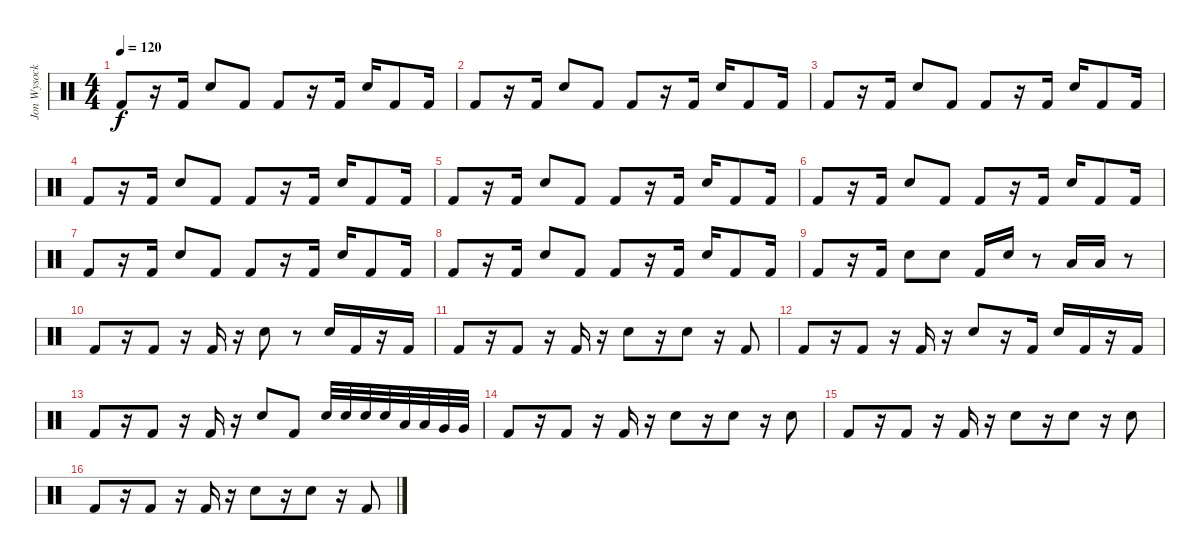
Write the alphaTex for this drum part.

\track ("Jon Wysocki" "Jon Wysock") {instrument percussion}
\staff {score}
\articulation defaults
\ts (4 4)
\tempo 120
\clef neutral
\ks c "Kick (hit) 2".8{dy f}
r.16 "Kick (hit) 2".16 "Electric Snare (hit)".8 "Kick (hit) 2".8 "Kick (hit) 2".8 r.16 "Kick (hit) 2".16 "Electric Snare (hit)".16 "Kick (hit) 2".8 "Kick (hit) 2".16 |
"Kick (hit) 2".8 r.16 "Kick (hit) 2".16 "Electric Snare (hit)".8 "Kick (hit) 2".8 "Kick (hit) 2".8 r.16 "Kick (hit) 2".16 "Electric Snare (hit)".16 "Kick (hit) 2".8 "Kick (hit) 2".16 |
"Kick (hit) 2".8 r.16 "Kick (hit) 2".16 "Electric Snare (hit)".8 "Kick (hit) 2".8 "Kick (hit) 2".8 r.16 "Kick (hit) 2".16 "Electric Snare (hit)".16 "Kick (hit) 2".8 "Kick (hit) 2".16 |
"Kick (hit) 2".8 r.16 "Kick (hit) 2".16 "Electric Snare (hit)".8 "Kick (hit) 2".8 "Kick (hit) 2".8 r.16 "Kick (hit) 2".16 "Electric Snare (hit)".16 "Kick (hit) 2".8 "Kick (hit) 2".16 |
"Kick (hit) 2".8 r.16 "Kick (hit) 2".16 "Electric Snare (hit)".8 "Kick (hit) 2".8 "Kick (hit) 2".8 r.16 "Kick (hit) 2".16 "Electric Snare (hit)".16 "Kick (hit) 2".8 "Kick (hit) 2".16 |
"Kick (hit) 2".8 r.16 "Kick (hit) 2".16 "Electric Snare (hit)".8 "Kick (hit) 2".8 "Kick (hit) 2".8 r.16 "Kick (hit) 2".16 "Electric Snare (hit)".16 "Kick (hit) 2".8 "Kick (hit) 2".16 |
"Kick (hit) 2".8 r.16 "Kick (hit) 2".16 "Electric Snare (hit)".8 "Kick (hit) 2".8 "Kick (hit) 2".8 r.16 "Kick (hit) 2".16 "Electric Snare (hit)".16 "Kick (hit) 2".8 "Kick (hit) 2".16 |
"Kick (hit) 2".8 r.16 "Kick (hit) 2".16 "Electric Snare (hit)".8 "Kick (hit) 2".8 "Kick (hit) 2".8 r.16 "Kick (hit) 2".16 "Electric Snare (hit)".16 "Kick (hit) 2".8 "Kick (hit) 2".16 |
"Kick (hit) 2".8 r.16 "Kick (hit) 2".16 "Electric Snare (hit)".8 "Electric Snare (hit)".8 "Kick (hit) 2".16 "Electric Snare (hit)".16 r.8 "Low Tom (hit)".16 "Low Tom (hit)".16 r.8 |
"Kick (hit) 2".8 r.16 "Kick (hit) 2".8 r.16 "Kick (hit) 2".16 r.16 "Electric Snare (hit)".8 r.8 "Electric Snare (hit)".16 "Kick (hit) 2".16 r.16 "Kick (hit) 2".16 |
"Kick (hit) 2".8 r.16 "Kick (hit) 2".8 r.16 "Kick (hit) 2".16 r.16 "Electric Snare (hit)".8 r.16 "Electric Snare (hit)".8 r.16 "Kick (hit) 2".8 |
"Kick (hit) 2".8 r.16 "Kick (hit) 2".8 r.16 "Kick (hit) 2".16 r.16 "Electric Snare (hit)".8 r.16 "Kick (hit) 2".16 "Electric Snare (hit)".16 "Kick (hit) 2".16 r.16 "Kick (hit) 2".16 |
"Kick (hit) 2".8 r.16 "Kick (hit) 2".8 r.16 "Kick (hit) 2".16 r.16 "Electric Snare (hit)".8 "Kick (hit) 2".8 "Electric Snare (hit)".32 "Electric Snare (hit)".32 "Electric Snare (hit)".32 "Electric Snare (hit)".32 "Low Tom (hit)".32 "Low Tom (hit)".32 "Very Low Tom (hit)".32 "Very Low Tom (hit)".32 |
"Kick (hit) 2".8 r.16 "Kick (hit) 2".8 r.16 "Kick (hit) 2".16 r.16 "Electric Snare (hit)".8 r.16 "Electric Snare (hit)".8 r.16 "Electric Snare (hit)".8 |
"Kick (hit) 2".8 r.16 "Kick (hit) 2".8 r.16 "Kick (hit) 2".16 r.16 "Electric Snare (hit)".8 r.16 "Electric Snare (hit)".8 r.16 "Electric Snare (hit)".8 |
"Kick (hit) 2".8 r.16 "Kick (hit) 2".8 r.16 "Kick (hit) 2".16 r.16 "Electric Snare (hit)".8 r.16 "Electric Snare (hit)".8 r.16 "Kick (hit) 2".8
